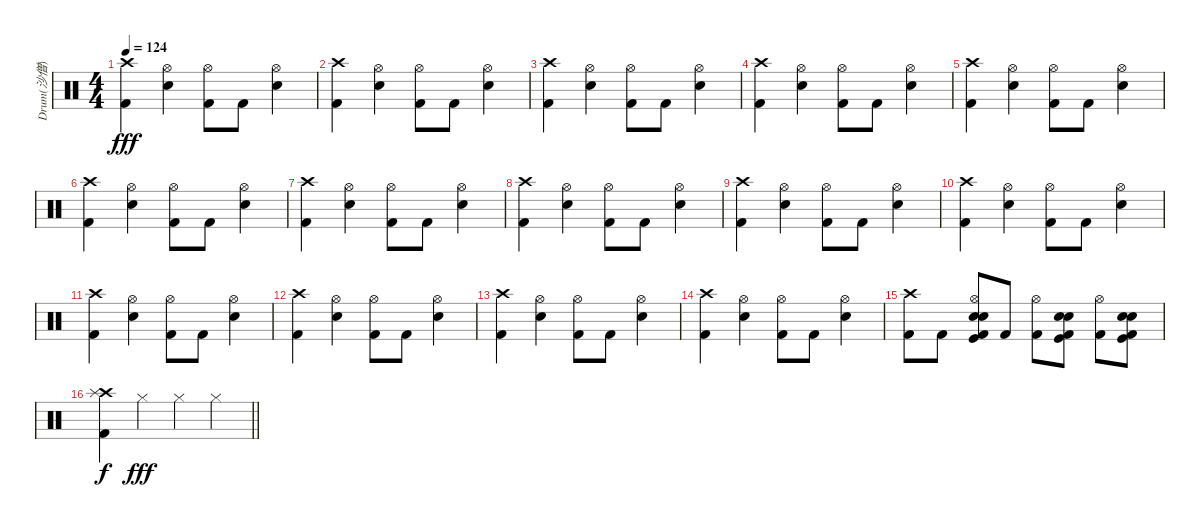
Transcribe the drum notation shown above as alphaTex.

\track ("Drum(沙僧)" "Drum(沙僧)") {instrument percussion}
\staff {score}
\articulation defaults
\ts (4 4)
\tempo 124
\clef neutral
\ks c
("Crash high (hit)" "Kick (hit) 2").4{dy fff} ("Hi-Hat (open)" "Electric Snare (hit)").4 ("Hi-Hat (open)" "Kick (hit) 2").8 "Kick (hit) 2".8 ("Hi-Hat (open)" "Electric Snare (hit)").4 |
("Crash high (hit)" "Kick (hit) 2").4 ("Hi-Hat (open)" "Electric Snare (hit)").4 ("Hi-Hat (open)" "Kick (hit) 2").8 "Kick (hit) 2".8 ("Hi-Hat (open)" "Electric Snare (hit)").4 |
("Crash high (hit)" "Kick (hit) 2").4 ("Hi-Hat (open)" "Electric Snare (hit)").4 ("Hi-Hat (open)" "Kick (hit) 2").8 "Kick (hit) 2".8 ("Hi-Hat (open)" "Electric Snare (hit)").4 |
("Crash high (hit)" "Kick (hit) 2").4 ("Hi-Hat (open)" "Electric Snare (hit)").4 ("Hi-Hat (open)" "Kick (hit) 2").8 "Kick (hit) 2".8 ("Hi-Hat (open)" "Electric Snare (hit)").4 |
("Crash high (hit)" "Kick (hit) 2").4 ("Hi-Hat (open)" "Electric Snare (hit)").4 ("Hi-Hat (open)" "Kick (hit) 2").8 "Kick (hit) 2".8 ("Hi-Hat (open)" "Electric Snare (hit)").4 |
("Crash high (hit)" "Kick (hit) 2").4 ("Hi-Hat (open)" "Electric Snare (hit)").4 ("Hi-Hat (open)" "Kick (hit) 2").8 "Kick (hit) 2".8 ("Hi-Hat (open)" "Electric Snare (hit)").4 |
("Crash high (hit)" "Kick (hit) 2").4 ("Hi-Hat (open)" "Electric Snare (hit)").4 ("Hi-Hat (open)" "Kick (hit) 2").8 "Kick (hit) 2".8 ("Hi-Hat (open)" "Electric Snare (hit)").4 |
("Crash high (hit)" "Kick (hit) 2").4 ("Hi-Hat (open)" "Electric Snare (hit)").4 ("Hi-Hat (open)" "Kick (hit) 2").8 "Kick (hit) 2".8 ("Hi-Hat (open)" "Electric Snare (hit)").4 |
("Crash high (hit)" "Kick (hit) 2").4 ("Hi-Hat (open)" "Electric Snare (hit)").4 ("Hi-Hat (open)" "Kick (hit) 2").8 "Kick (hit) 2".8 ("Hi-Hat (open)" "Electric Snare (hit)").4 |
("Crash high (hit)" "Kick (hit) 2").4 ("Hi-Hat (open)" "Electric Snare (hit)").4 ("Hi-Hat (open)" "Kick (hit) 2").8 "Kick (hit) 2".8 ("Hi-Hat (open)" "Electric Snare (hit)").4 |
("Crash high (hit)" "Kick (hit) 2").4 ("Hi-Hat (open)" "Electric Snare (hit)").4 ("Hi-Hat (open)" "Kick (hit) 2").8 "Kick (hit) 2".8 ("Hi-Hat (open)" "Electric Snare (hit)").4 |
("Crash high (hit)" "Kick (hit) 2").4 ("Hi-Hat (open)" "Electric Snare (hit)").4 ("Hi-Hat (open)" "Kick (hit) 2").8 "Kick (hit) 2".8 ("Hi-Hat (open)" "Electric Snare (hit)").4 |
("Crash high (hit)" "Kick (hit) 2").4 ("Hi-Hat (open)" "Electric Snare (hit)").4 ("Hi-Hat (open)" "Kick (hit) 2").8 "Kick (hit) 2".8 ("Hi-Hat (open)" "Electric Snare (hit)").4 |
("Crash high (hit)" "Kick (hit) 2").4 ("Hi-Hat (open)" "Electric Snare (hit)").4 ("Hi-Hat (open)" "Kick (hit) 2").8 "Kick (hit) 2".8 ("Hi-Hat (open)" "Electric Snare (hit)").4 |
("Crash high (hit)" "Kick (hit) 2").8 "Kick (hit) 2".8 ("Hi-Hat (open)" "Electric Snare (hit)" "Snare (hit) 2" "Kick (hit)" "Kick (hit) 2").8 "Kick (hit) 2".8 ("Hi-Hat (open)" "Kick (hit) 2").8 ("Electric Snare (hit)" "Snare (hit) 2" "Kick (hit)" "Kick (hit) 2").8 ("Hi-Hat (open)" "Kick (hit) 2").8 ("Electric Snare (hit)" "Snare (hit) 2" "Kick (hit)" "Kick (hit) 2").8 |
\barLineRight lightlight
("Crash high (hit)" "Splash (hit)" "Kick (hit) 2").4{dy f} "Hi-Hat (closed)".4{dy fff} "Hi-Hat (closed)".4 "Hi-Hat (closed)".4
